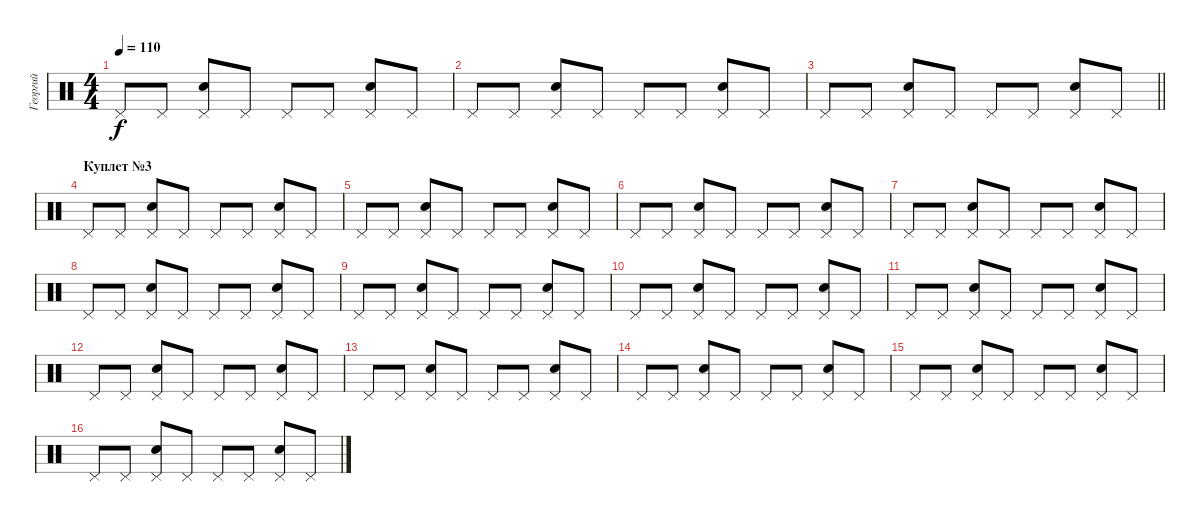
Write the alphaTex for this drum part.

\track ("Георгий" "Георгий") {instrument percussion}
\staff {score}
\articulation defaults
\ts (4 4)
\tempo 110
\clef neutral
\ks c "Pedal Hi-Hat (hit)".8{dy f} "Pedal Hi-Hat (hit)".8
("Pedal Hi-Hat (hit)" "Snare (hit) 2").8 "Pedal Hi-Hat (hit)".8 "Pedal Hi-Hat (hit)".8 "Pedal Hi-Hat (hit)".8 ("Pedal Hi-Hat (hit)" "Snare (hit) 2").8 "Pedal Hi-Hat (hit)".8 |
"Pedal Hi-Hat (hit)".8 "Pedal Hi-Hat (hit)".8 ("Pedal Hi-Hat (hit)" "Snare (hit) 2").8 "Pedal Hi-Hat (hit)".8 "Pedal Hi-Hat (hit)".8 "Pedal Hi-Hat (hit)".8 ("Pedal Hi-Hat (hit)" "Snare (hit) 2").8 "Pedal Hi-Hat (hit)".8 |
\barLineRight lightlight "Pedal Hi-Hat (hit)".8 "Pedal Hi-Hat (hit)".8
("Pedal Hi-Hat (hit)" "Snare (hit) 2").8 "Pedal Hi-Hat (hit)".8 "Pedal Hi-Hat (hit)".8 "Pedal Hi-Hat (hit)".8 ("Pedal Hi-Hat (hit)" "Snare (hit) 2").8 "Pedal Hi-Hat (hit)".8 |
\section ("" "Куплет №3")
"Pedal Hi-Hat (hit)".8{volume 14} "Pedal Hi-Hat (hit)".8 ("Pedal Hi-Hat (hit)" "Snare (hit) 2").8 "Pedal Hi-Hat (hit)".8 "Pedal Hi-Hat (hit)".8 "Pedal Hi-Hat (hit)".8 ("Pedal Hi-Hat (hit)" "Snare (hit) 2").8 "Pedal Hi-Hat (hit)".8 |
"Pedal Hi-Hat (hit)".8 "Pedal Hi-Hat (hit)".8 ("Pedal Hi-Hat (hit)" "Snare (hit) 2").8 "Pedal Hi-Hat (hit)".8 "Pedal Hi-Hat (hit)".8 "Pedal Hi-Hat (hit)".8 ("Pedal Hi-Hat (hit)" "Snare (hit) 2").8 "Pedal Hi-Hat (hit)".8 |
"Pedal Hi-Hat (hit)".8 "Pedal Hi-Hat (hit)".8 ("Pedal Hi-Hat (hit)" "Snare (hit) 2").8 "Pedal Hi-Hat (hit)".8 "Pedal Hi-Hat (hit)".8 "Pedal Hi-Hat (hit)".8 ("Pedal Hi-Hat (hit)" "Snare (hit) 2").8 "Pedal Hi-Hat (hit)".8 |
"Pedal Hi-Hat (hit)".8 "Pedal Hi-Hat (hit)".8 ("Pedal Hi-Hat (hit)" "Snare (hit) 2").8 "Pedal Hi-Hat (hit)".8 "Pedal Hi-Hat (hit)".8 "Pedal Hi-Hat (hit)".8 ("Pedal Hi-Hat (hit)" "Snare (hit) 2").8 "Pedal Hi-Hat (hit)".8 |
"Pedal Hi-Hat (hit)".8 "Pedal Hi-Hat (hit)".8 ("Pedal Hi-Hat (hit)" "Snare (hit) 2").8 "Pedal Hi-Hat (hit)".8 "Pedal Hi-Hat (hit)".8 "Pedal Hi-Hat (hit)".8 ("Pedal Hi-Hat (hit)" "Snare (hit) 2").8 "Pedal Hi-Hat (hit)".8 |
"Pedal Hi-Hat (hit)".8 "Pedal Hi-Hat (hit)".8 ("Pedal Hi-Hat (hit)" "Snare (hit) 2").8 "Pedal Hi-Hat (hit)".8 "Pedal Hi-Hat (hit)".8 "Pedal Hi-Hat (hit)".8 ("Pedal Hi-Hat (hit)" "Snare (hit) 2").8 "Pedal Hi-Hat (hit)".8 |
"Pedal Hi-Hat (hit)".8 "Pedal Hi-Hat (hit)".8 ("Pedal Hi-Hat (hit)" "Snare (hit) 2").8 "Pedal Hi-Hat (hit)".8 "Pedal Hi-Hat (hit)".8 "Pedal Hi-Hat (hit)".8 ("Pedal Hi-Hat (hit)" "Snare (hit) 2").8 "Pedal Hi-Hat (hit)".8 |
"Pedal Hi-Hat (hit)".8 "Pedal Hi-Hat (hit)".8 ("Pedal Hi-Hat (hit)" "Snare (hit) 2").8 "Pedal Hi-Hat (hit)".8 "Pedal Hi-Hat (hit)".8 "Pedal Hi-Hat (hit)".8 ("Pedal Hi-Hat (hit)" "Snare (hit) 2").8 "Pedal Hi-Hat (hit)".8 |
"Pedal Hi-Hat (hit)".8 "Pedal Hi-Hat (hit)".8 ("Pedal Hi-Hat (hit)" "Snare (hit) 2").8 "Pedal Hi-Hat (hit)".8 "Pedal Hi-Hat (hit)".8 "Pedal Hi-Hat (hit)".8 ("Pedal Hi-Hat (hit)" "Snare (hit) 2").8 "Pedal Hi-Hat (hit)".8 |
"Pedal Hi-Hat (hit)".8 "Pedal Hi-Hat (hit)".8 ("Pedal Hi-Hat (hit)" "Snare (hit) 2").8 "Pedal Hi-Hat (hit)".8 "Pedal Hi-Hat (hit)".8 "Pedal Hi-Hat (hit)".8 ("Pedal Hi-Hat (hit)" "Snare (hit) 2").8 "Pedal Hi-Hat (hit)".8 |
"Pedal Hi-Hat (hit)".8 "Pedal Hi-Hat (hit)".8 ("Pedal Hi-Hat (hit)" "Snare (hit) 2").8 "Pedal Hi-Hat (hit)".8 "Pedal Hi-Hat (hit)".8 "Pedal Hi-Hat (hit)".8 ("Pedal Hi-Hat (hit)" "Snare (hit) 2").8 "Pedal Hi-Hat (hit)".8 |
"Pedal Hi-Hat (hit)".8 "Pedal Hi-Hat (hit)".8 ("Pedal Hi-Hat (hit)" "Snare (hit) 2").8 "Pedal Hi-Hat (hit)".8 "Pedal Hi-Hat (hit)".8 "Pedal Hi-Hat (hit)".8 ("Pedal Hi-Hat (hit)" "Snare (hit) 2").8 "Pedal Hi-Hat (hit)".8 |
"Pedal Hi-Hat (hit)".8 "Pedal Hi-Hat (hit)".8 ("Pedal Hi-Hat (hit)" "Snare (hit) 2").8 "Pedal Hi-Hat (hit)".8 "Pedal Hi-Hat (hit)".8 "Pedal Hi-Hat (hit)".8 ("Pedal Hi-Hat (hit)" "Snare (hit) 2").8 "Pedal Hi-Hat (hit)".8
